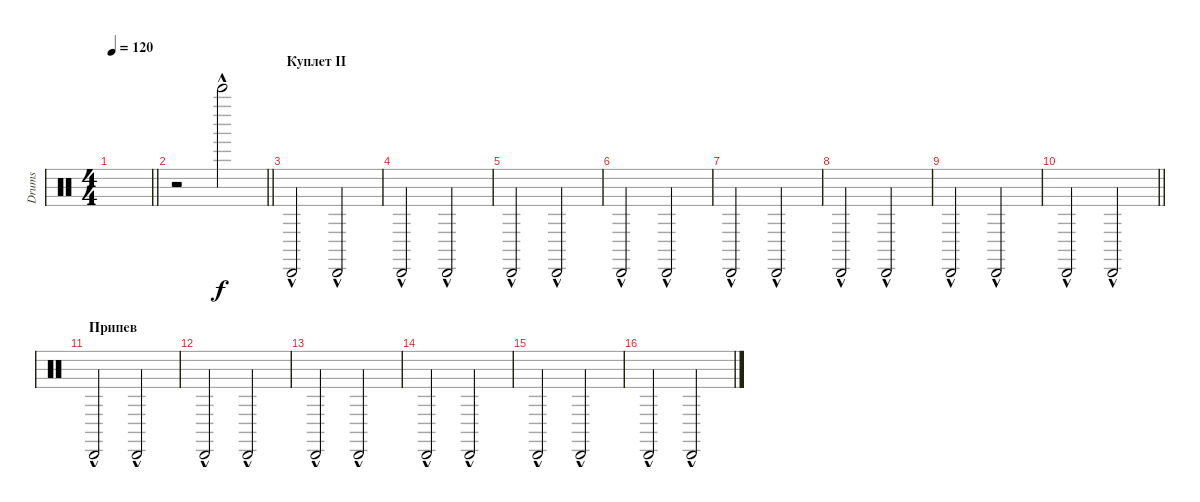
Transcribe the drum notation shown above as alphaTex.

\track ("Drums" "Drums") {instrument percussion}
\staff {score}
\articulation defaults
\ts (4 4)
\tempo 120
\clef neutral
\barLineRight lightlight
\ks c
|
\barLineRight lightlight
r.2 "Bell Tree (hit)"{hac}.2 |
\section ("" "Куплет II")
"Cabasa (hit)"{hac}.2 "Cabasa (hit)"{hac}.2 |
"Cabasa (hit)"{hac}.2 "Cabasa (hit)"{hac}.2 |
"Cabasa (hit)"{hac}.2 "Cabasa (hit)"{hac}.2 |
"Cabasa (hit)"{hac}.2 "Cabasa (hit)"{hac}.2 |
"Cabasa (hit)"{hac}.2 "Cabasa (hit)"{hac}.2 |
"Cabasa (hit)"{hac}.2 "Cabasa (hit)"{hac}.2 |
"Cabasa (hit)"{hac}.2 "Cabasa (hit)"{hac}.2 |
\barLineRight lightlight "Cabasa (hit)"{hac}.2 "Cabasa (hit)"{hac}.2
|
\section ("" "Припев")
"Cabasa (hit)"{hac}.2 "Cabasa (hit)"{hac}.2 |
"Cabasa (hit)"{hac}.2 "Cabasa (hit)"{hac}.2 |
"Cabasa (hit)"{hac}.2 "Cabasa (hit)"{hac}.2 |
"Cabasa (hit)"{hac}.2 "Cabasa (hit)"{hac}.2 |
"Cabasa (hit)"{hac}.2 "Cabasa (hit)"{hac}.2 |
"Cabasa (hit)"{hac}.2 "Cabasa (hit)"{hac}.2
